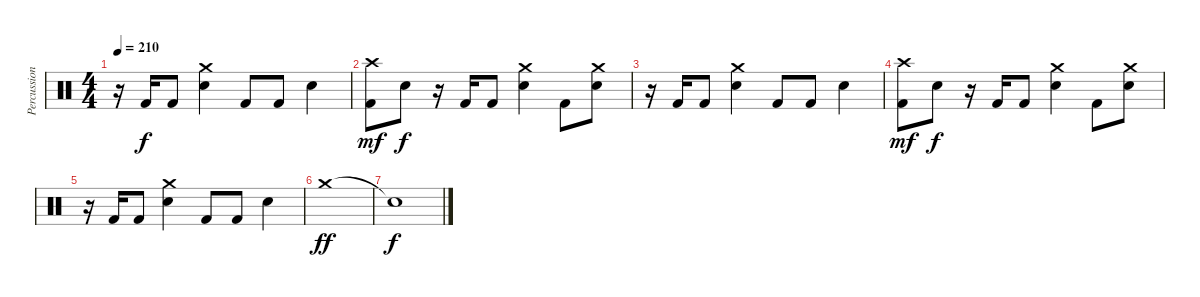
\track ("Percussions" "Percussion") {instrument percussion}
\staff {score}
\articulation defaults
\ts (4 4)
\tempo 210
\clef neutral
\ks c
r.16{dy f} "Kick (hit) 2".16 "Kick (hit) 2".8 ("Electric Snare (hit)" "Crash medium (hit)").4 "Kick (hit) 2".8 "Kick (hit) 2".8 "Electric Snare (hit)".4 |
("Kick (hit) 2" "Crash high (hit)").8{dy mf} "Electric Snare (hit)".8{dy f} r.16 "Kick (hit) 2".16 "Kick (hit) 2".8 ("Electric Snare (hit)" "Crash medium (hit)").4 "Kick (hit) 2".8 ("Electric Snare (hit)" "Crash medium (hit)").8 |
r.16 "Kick (hit) 2".16 "Kick (hit) 2".8 ("Electric Snare (hit)" "Crash medium (hit)").4 "Kick (hit) 2".8 "Kick (hit) 2".8 "Electric Snare (hit)".4 |
("Kick (hit) 2" "Crash high (hit)").8{dy mf} "Electric Snare (hit)".8{dy f} r.16 "Kick (hit) 2".16 "Kick (hit) 2".8 ("Electric Snare (hit)" "Crash medium (hit)").4 "Kick (hit) 2".8 ("Electric Snare (hit)" "Crash medium (hit)").8 |
r.16 "Kick (hit) 2".16 "Kick (hit) 2".8 ("Electric Snare (hit)" "Crash medium (hit)").4 "Kick (hit) 2".8 "Kick (hit) 2".8 "Electric Snare (hit)".4 |
"Crash medium (hit)".1{dy ff} |
"Snare (hit)"{t}.1{dy f}
